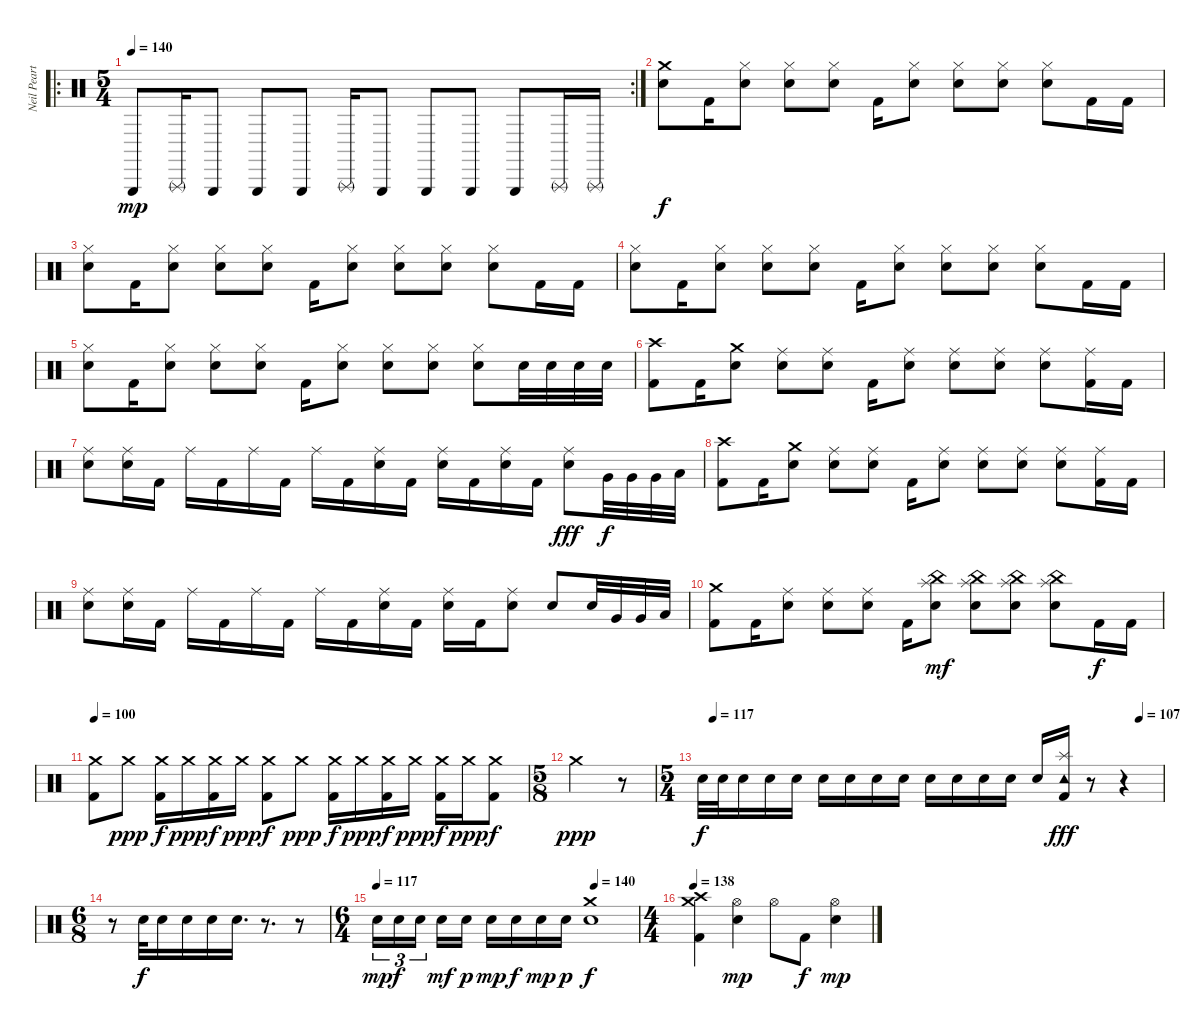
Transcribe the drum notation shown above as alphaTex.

\track ("Neil Peart, Percusión" "Neil Peart") {instrument percussion}
\staff {score}
\articulation defaults
\ro
\rc 2
\ts (5 4)
\tempo 140
\tempo 107
\tempo 140
\clef neutral
\ks c "Triangle (hit)".8{dy mp} "Triangle (rnute)".16 "Triangle (hit)".8 "Triangle (hit)".8 "Triangle (hit)".8 "Triangle (rnute)".16 "Triangle (hit)".8 "Triangle (hit)".8 "Triangle (hit)".8 "Triangle (hit)".8 "Triangle (rnute)".16 "Triangle (rnute)".16
|
("Crash medium (hit)" "Electric Snare (hit)").8{dy f} "Kick (hit) 2".16 ("Hi-Hat (closed)" "Electric Snare (hit)").8 ("Hi-Hat (closed)" "Electric Snare (hit)").8 ("Hi-Hat (closed)" "Electric Snare (hit)").8 "Kick (hit) 2".16 ("Hi-Hat (closed)" "Electric Snare (hit)").8 ("Hi-Hat (closed)" "Electric Snare (hit)").8 ("Hi-Hat (closed)" "Electric Snare (hit)").8 ("Hi-Hat (closed)" "Electric Snare (hit)").8 "Kick (hit) 2".16 "Kick (hit) 2".16 |
("Hi-Hat (closed)" "Electric Snare (hit)").8 "Kick (hit) 2".16 ("Hi-Hat (closed)" "Electric Snare (hit)").8 ("Hi-Hat (closed)" "Electric Snare (hit)").8 ("Hi-Hat (closed)" "Electric Snare (hit)").8 "Kick (hit) 2".16 ("Hi-Hat (closed)" "Electric Snare (hit)").8 ("Hi-Hat (closed)" "Electric Snare (hit)").8 ("Hi-Hat (closed)" "Electric Snare (hit)").8 ("Hi-Hat (closed)" "Electric Snare (hit)").8 "Kick (hit) 2".16 "Kick (hit) 2".16 |
("Hi-Hat (closed)" "Electric Snare (hit)").8 "Kick (hit) 2".16 ("Hi-Hat (closed)" "Electric Snare (hit)").8 ("Hi-Hat (closed)" "Electric Snare (hit)").8 ("Hi-Hat (closed)" "Electric Snare (hit)").8 "Kick (hit) 2".16 ("Hi-Hat (closed)" "Electric Snare (hit)").8 ("Hi-Hat (closed)" "Electric Snare (hit)").8 ("Hi-Hat (closed)" "Electric Snare (hit)").8 ("Hi-Hat (closed)" "Electric Snare (hit)").8 "Kick (hit) 2".16 "Kick (hit) 2".16 |
("Hi-Hat (closed)" "Electric Snare (hit)").8 "Kick (hit) 2".16 ("Hi-Hat (closed)" "Electric Snare (hit)").8 ("Hi-Hat (closed)" "Electric Snare (hit)").8 ("Hi-Hat (closed)" "Electric Snare (hit)").8 "Kick (hit) 2".16 ("Hi-Hat (closed)" "Electric Snare (hit)").8 ("Hi-Hat (closed)" "Electric Snare (hit)").8 ("Hi-Hat (closed)" "Electric Snare (hit)").8 ("Hi-Hat (closed)" "Electric Snare (hit)").8 "Electric Snare (hit)".32 "Electric Snare (hit)".32 "Electric Snare (hit)".32 "Electric Snare (hit)".32 |
("Crash high (hit)" "Kick (hit) 2").8 "Kick (hit) 2".16 ("Crash medium (hit)" "Electric Snare (hit)").8 ("Ride (middle)" "Electric Snare (hit)").8 ("Ride (middle)" "Electric Snare (hit)").8 "Kick (hit) 2".16 ("Ride (middle)" "Electric Snare (hit)").8 ("Ride (middle)" "Electric Snare (hit)").8 ("Ride (middle)" "Electric Snare (hit)").8 ("Ride (middle)" "Electric Snare (hit)").8 ("Ride (middle)" "Kick (hit) 2").16 "Kick (hit) 2".16 |
("Ride (middle)" "Electric Snare (hit)").8 ("Ride (middle)" "Electric Snare (hit)").16 "Kick (hit) 2".16 "Ride (middle)".16 "Kick (hit) 2".16 "Ride (middle)".16 "Kick (hit) 2".16 "Ride (middle)".16 "Kick (hit) 2".16 ("Ride (middle)" "Electric Snare (hit)").16 "Kick (hit) 2".16 ("Ride (middle)" "Electric Snare (hit)").16 "Kick (hit) 2".16 ("Ride (middle)" "Electric Snare (hit)").16 "Kick (hit) 2".16 ("Ride (middle)" "Electric Snare (hit)").8{dy fff} "Very Low Tom (hit)".32{dy f} "Very Low Tom (hit)".32 "Very Low Tom (hit)".32 "Low Floor Tom (hit)".32 |
("Crash high (hit)" "Kick (hit) 2").8 "Kick (hit) 2".16 ("Crash medium (hit)" "Electric Snare (hit)").8 ("Ride (middle)" "Electric Snare (hit)").8 ("Ride (middle)" "Electric Snare (hit)").8 "Kick (hit) 2".16 ("Ride (middle)" "Electric Snare (hit)").8 ("Ride (middle)" "Electric Snare (hit)").8 ("Ride (middle)" "Electric Snare (hit)").8 ("Ride (middle)" "Electric Snare (hit)").8 ("Ride (middle)" "Kick (hit) 2").16 "Kick (hit) 2".16 |
("Ride (middle)" "Electric Snare (hit)").8 ("Ride (middle)" "Electric Snare (hit)").16 "Kick (hit) 2".16 "Ride (middle)".16 "Kick (hit) 2".16 "Ride (middle)".16 "Kick (hit) 2".16 "Ride (middle)".16 "Kick (hit) 2".16 ("Ride (middle)" "Electric Snare (hit)").16 "Kick (hit) 2".16 ("Ride (middle)" "Electric Snare (hit)").16 "Kick (hit) 2".16 ("Ride (middle)" "Electric Snare (hit)").8 "Electric Snare (hit)".8 "Electric Snare (hit)".32 "Very Low Tom (hit)".32 "Very Low Tom (hit)".32 "Low Floor Tom (hit)".32 |
("Crash medium (hit)" "Kick (hit) 2").8 "Kick (hit) 2".16 ("Ride (middle)" "Electric Snare (hit)").8 ("Ride (middle)" "Electric Snare (hit)").8 ("Ride (middle)" "Electric Snare (hit)").8 "Kick (hit) 2".16 ("China (hit)" "Electric Snare (hit)" "Splash (hit)").8{dy mf} ("China (hit)" "Electric Snare (hit)" "Splash (hit)").8 ("China (hit)" "Electric Snare (hit)" "Splash (hit)").8 ("China (hit)" "Electric Snare (hit)" "Splash (hit)").8 "Kick (hit) 2".16{dy f} "Kick (hit) 2".16 |
\tempo 100
("Crash medium (hit)" "Kick (hit) 2").8 "Crash medium (hit)".8{dy ppp} ("Crash medium (hit)" "Kick (hit) 2").16{dy f} "Crash medium (hit)".16{dy ppp} ("Crash medium (hit)" "Kick (hit) 2").16{dy f} "Crash medium (hit)".16{dy ppp} ("Crash medium (hit)" "Kick (hit) 2").8{dy f} "Crash medium (hit)".8{dy ppp} ("Crash medium (hit)" "Kick (hit) 2").16{dy f} "Crash medium (hit)".16{dy ppp} ("Crash medium (hit)" "Kick (hit) 2").16{dy f} "Crash medium (hit)".16{dy ppp} ("Crash medium (hit)" "Kick (hit) 2").16{dy f} "Crash medium (hit)".16{dy ppp} ("Crash medium (hit)" "Kick (hit) 2").8{dy f} |
\ts (5 8)
"Crash medium (hit)".2{dy ppp} r.8 |
\ts (5 4)
\tempo (117 0.025)
\tempo (107 0.95)
"Electric Snare (hit)".32{dy f} "Electric Snare (hit)".32 "Electric Snare (hit)".16 "Electric Snare (hit)".16 "Electric Snare (hit)".16 "Electric Snare (hit)".16 "Electric Snare (hit)".16 "Electric Snare (hit)".16 "Electric Snare (hit)".16 "Electric Snare (hit)".16 "Electric Snare (hit)".16 "Electric Snare (hit)".16 "Electric Snare (hit)".16 "Electric Snare (hit)".16 ("Splash (hit)" "Tambourine (hit)" "Kick (hit) 2").16{dy fff} r.8 r.4 |
\ts (6 8)
r.8 "Electric Snare (hit)".32{dy f} "Electric Snare (hit)".16 "Electric Snare (hit)".16 "Electric Snare (hit)".16 "Electric Snare (hit)".16{d} r.8{d} r.8 |
\ts (6 4)
\tempo 117
\tempo (140 0.8333333333333334)
"Electric Snare (hit)".16{tu (3 2) dy mp} "Electric Snare (hit)".16{tu (3 2) dy f} "Electric Snare (hit)".16{tu (3 2)} "Electric Snare (hit)".16{dy mf} "Electric Snare (hit)".16{dy p} "Electric Snare (hit)".16{dy mp} "Electric Snare (hit)".16{dy f} "Electric Snare (hit)".16{dy mp} "Electric Snare (hit)".16{dy p} ("Crash medium (hit)" "Electric Snare (hit)").1{dy f} |
\ts (4 4)
\tempo 138
("Crash medium (hit)" "Crash high (hit)" "Kick (hit) 2").4 ("Hi-Hat (open)" "Electric Snare (hit)").4{dy mp} "Hi-Hat (open)".8 "Kick (hit) 2".8{dy f} ("Hi-Hat (open)" "Electric Snare (hit)").4{dy mp}
